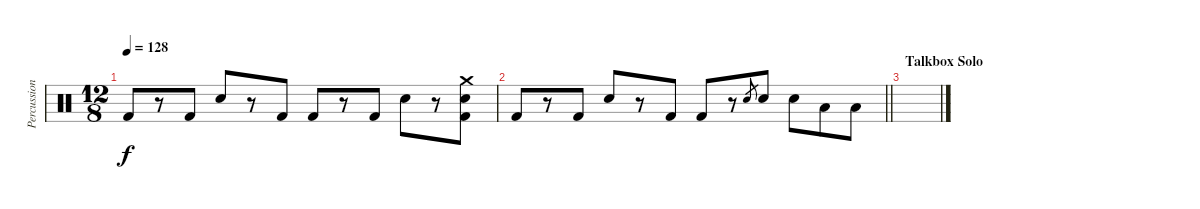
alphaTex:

\track ("Percussion" "Percussion") {instrument percussion}
\staff {score}
\articulation defaults
\ts (12 8)
\tempo 128
\clef neutral
\ks c "Kick (hit) 2".8{dy f}
r.8 "Kick (hit) 2".8 "Snare (hit) 2".8 r.8 "Kick (hit) 2".8 "Kick (hit) 2".8 r.8 "Kick (hit) 2".8 "Snare (hit) 2".8 r.8 ("Crash medium (hit)" "Snare (hit) 2" "Kick (hit) 2").8 |
\barLineRight lightlight "Kick (hit) 2".8
r.8 "Kick (hit) 2".8 "Snare (hit) 2".8 r.8 "Kick (hit) 2".8 "Kick (hit) 2".8 r.8 "Snare (hit) 2".8{gr} "Snare (hit) 2".8 "Snare (hit) 2".8 "Low Tom (hit)".8 "Low Floor Tom (hit)".8 |
\section ("" "Talkbox Solo")
